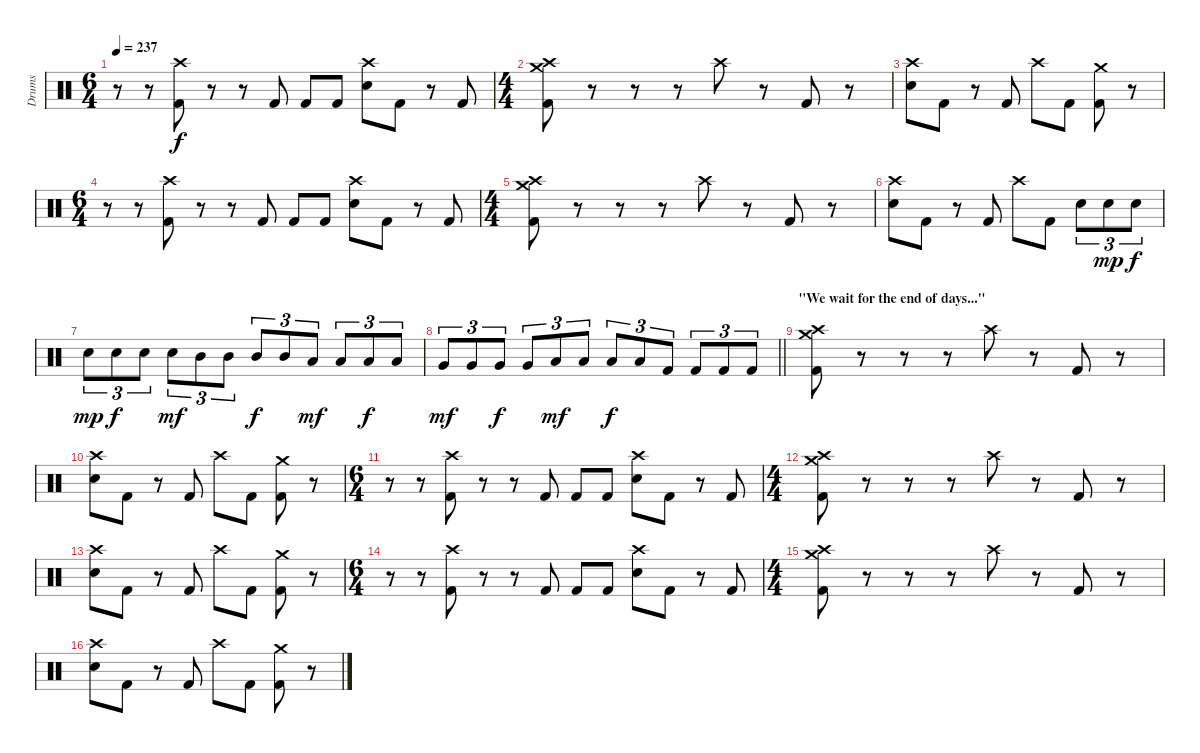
\track ("Drums" "Drums") {instrument percussion}
\staff {score}
\articulation defaults
\ts (6 4)
\tempo 237
\clef neutral
\ks c
r.8{dy f} r.8 ("Crash high (hit)" "Kick (hit) 2").8 r.8 r.8 "Kick (hit) 2".8 "Kick (hit) 2".8 "Kick (hit) 2".8 ("Crash high (hit)" "Electric Snare (hit)").8 "Kick (hit) 2".8 r.8 "Kick (hit) 2".8 |
\ts (4 4)
("Crash high (hit)" "Crash medium (hit)" "Kick (hit) 2").8 r.8 r.8 r.8 "Crash high (hit)".8 r.8 "Kick (hit) 2".8 r.8 |
("Crash high (hit)" "Electric Snare (hit)").8 "Kick (hit) 2".8 r.8 "Kick (hit) 2".8 "Crash high (hit)".8 "Kick (hit) 2".8 ("Crash medium (hit)" "Kick (hit) 2").8 r.8 |
\ts (6 4)
r.8 r.8 ("Crash high (hit)" "Kick (hit) 2").8 r.8 r.8 "Kick (hit) 2".8 "Kick (hit) 2".8 "Kick (hit) 2".8 ("Crash high (hit)" "Electric Snare (hit)").8 "Kick (hit) 2".8 r.8 "Kick (hit) 2".8 |
\ts (4 4)
("Crash high (hit)" "Crash medium (hit)" "Kick (hit) 2").8 r.8 r.8 r.8 "Crash high (hit)".8 r.8 "Kick (hit) 2".8 r.8 |
("Crash high (hit)" "Electric Snare (hit)").8 "Kick (hit) 2".8 r.8 "Kick (hit) 2".8 "Crash high (hit)".8 "Kick (hit) 2".8 "Electric Snare (hit)".8{tu (3 2)} "Electric Snare (hit)".8{tu (3 2) dy mp} "Electric Snare (hit)".8{tu (3 2) dy f} |
"Electric Snare (hit)".8{tu (3 2) dy mp} "Electric Snare (hit)".8{tu (3 2) dy f} "Electric Snare (hit)".8{tu (3 2)} "Electric Snare (hit)".8{tu (3 2) dy mf} "Mid Tom (hit)".8{tu (3 2)} "Mid Tom (hit)".8{tu (3 2)} "Mid Tom (hit)".8{tu (3 2) dy f} "Mid Tom (hit)".8{tu (3 2)} "Low Tom (hit)".8{tu (3 2) dy mf} "Low Tom (hit)".8{tu (3 2)} "Low Tom (hit)".8{tu (3 2) dy f} "Low Tom (hit)".8{tu (3 2)} |
\barLineRight lightlight "Very Low Tom (hit)".8{tu (3 2) dy mf} "Very Low Tom (hit)".8{tu (3 2)} "Very Low Tom (hit)".8{tu (3 2) dy f} "Very Low Tom (hit)".8{tu (3 2)} "Low Floor Tom (hit)".8{tu (3 2) dy mf} "Low Floor Tom (hit)".8{tu (3 2)} "Low Floor Tom (hit)".8{tu (3 2) dy f} "Low Floor Tom (hit)".8{tu (3 2)} "Kick (hit) 2".8{tu (3 2)} "Kick (hit) 2".8{tu (3 2)} "Kick (hit) 2".8{tu (3 2)} "Kick (hit) 2".8{tu (3 2)}
|
\section ("" "\"We wait for the end of days...\"")
("Crash high (hit)" "Crash medium (hit)" "Kick (hit) 2").8 r.8 r.8 r.8 "Crash high (hit)".8 r.8 "Kick (hit) 2".8 r.8 |
("Crash high (hit)" "Electric Snare (hit)").8 "Kick (hit) 2".8 r.8 "Kick (hit) 2".8 "Crash high (hit)".8 "Kick (hit) 2".8 ("Crash medium (hit)" "Kick (hit) 2").8 r.8 |
\ts (6 4)
r.8 r.8 ("Crash high (hit)" "Kick (hit) 2").8 r.8 r.8 "Kick (hit) 2".8 "Kick (hit) 2".8 "Kick (hit) 2".8 ("Crash high (hit)" "Electric Snare (hit)").8 "Kick (hit) 2".8 r.8 "Kick (hit) 2".8 |
\ts (4 4)
("Crash high (hit)" "Crash medium (hit)" "Kick (hit) 2").8 r.8 r.8 r.8 "Crash high (hit)".8 r.8 "Kick (hit) 2".8 r.8 |
("Crash high (hit)" "Electric Snare (hit)").8 "Kick (hit) 2".8 r.8 "Kick (hit) 2".8 "Crash high (hit)".8 "Kick (hit) 2".8 ("Crash medium (hit)" "Kick (hit) 2").8 r.8 |
\ts (6 4)
r.8 r.8 ("Crash high (hit)" "Kick (hit) 2").8 r.8 r.8 "Kick (hit) 2".8 "Kick (hit) 2".8 "Kick (hit) 2".8 ("Crash high (hit)" "Electric Snare (hit)").8 "Kick (hit) 2".8 r.8 "Kick (hit) 2".8 |
\ts (4 4)
("Crash high (hit)" "Crash medium (hit)" "Kick (hit) 2").8 r.8 r.8 r.8 "Crash high (hit)".8 r.8 "Kick (hit) 2".8 r.8 |
("Crash high (hit)" "Electric Snare (hit)").8 "Kick (hit) 2".8 r.8 "Kick (hit) 2".8 "Crash high (hit)".8 "Kick (hit) 2".8 ("Crash medium (hit)" "Kick (hit) 2").8 r.8
